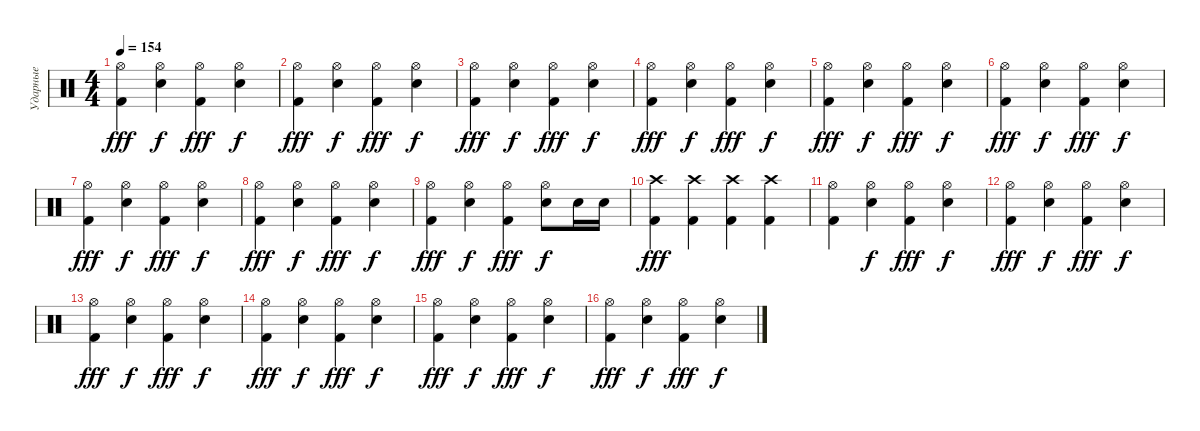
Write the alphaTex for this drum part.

\track ("Ударные" "Ударные") {instrument percussion}
\staff
\articulation defaults
\ts (4 4)
\tempo 154
\clef neutral
\ks c
("Kick (hit) 2" "Hi-Hat (open)").4{dy fff} ("Snare (hit) 2" "Hi-Hat (open)").4{dy f} ("Kick (hit) 2" "Hi-Hat (open)").4{dy fff} ("Snare (hit) 2" "Hi-Hat (open)").4{dy f} |
("Kick (hit) 2" "Hi-Hat (open)").4{dy fff} ("Snare (hit) 2" "Hi-Hat (open)").4{dy f} ("Kick (hit) 2" "Hi-Hat (open)").4{dy fff} ("Snare (hit) 2" "Hi-Hat (open)").4{dy f} |
("Kick (hit) 2" "Hi-Hat (open)").4{dy fff} ("Snare (hit) 2" "Hi-Hat (open)").4{dy f} ("Kick (hit) 2" "Hi-Hat (open)").4{dy fff} ("Snare (hit) 2" "Hi-Hat (open)").4{dy f} |
("Kick (hit) 2" "Hi-Hat (open)").4{dy fff} ("Snare (hit) 2" "Hi-Hat (open)").4{dy f} ("Kick (hit) 2" "Hi-Hat (open)").4{dy fff} ("Snare (hit) 2" "Hi-Hat (open)").4{dy f} |
("Kick (hit) 2" "Hi-Hat (open)").4{dy fff} ("Snare (hit) 2" "Hi-Hat (open)").4{dy f} ("Kick (hit) 2" "Hi-Hat (open)").4{dy fff} ("Snare (hit) 2" "Hi-Hat (open)").4{dy f} |
("Kick (hit) 2" "Hi-Hat (open)").4{dy fff} ("Snare (hit) 2" "Hi-Hat (open)").4{dy f} ("Kick (hit) 2" "Hi-Hat (open)").4{dy fff} ("Snare (hit) 2" "Hi-Hat (open)").4{dy f} |
("Kick (hit) 2" "Hi-Hat (open)").4{dy fff} ("Snare (hit) 2" "Hi-Hat (open)").4{dy f} ("Kick (hit) 2" "Hi-Hat (open)").4{dy fff} ("Snare (hit) 2" "Hi-Hat (open)").4{dy f} |
("Kick (hit) 2" "Hi-Hat (open)").4{dy fff} ("Snare (hit) 2" "Hi-Hat (open)").4{dy f} ("Kick (hit) 2" "Hi-Hat (open)").4{dy fff} ("Snare (hit) 2" "Hi-Hat (open)").4{dy f} |
("Kick (hit) 2" "Hi-Hat (open)").4{dy fff} ("Snare (hit) 2" "Hi-Hat (open)").4{dy f} ("Kick (hit) 2" "Hi-Hat (open)").4{dy fff} ("Snare (hit) 2" "Hi-Hat (open)").8{dy f} "Snare (hit) 2".16 "Snare (hit) 2".16 |
("Kick (hit) 2" "Crash high (hit)").4{dy fff} ("Kick (hit) 2" "Crash high (hit)").4 ("Kick (hit) 2" "Crash high (hit)").4 ("Kick (hit) 2" "Crash high (hit)").4 |
("Kick (hit) 2" "Hi-Hat (open)").4 ("Snare (hit) 2" "Hi-Hat (open)").4{dy f} ("Kick (hit) 2" "Hi-Hat (open)").4{dy fff} ("Snare (hit) 2" "Hi-Hat (open)").4{dy f} |
("Kick (hit) 2" "Hi-Hat (open)").4{dy fff} ("Snare (hit) 2" "Hi-Hat (open)").4{dy f} ("Kick (hit) 2" "Hi-Hat (open)").4{dy fff} ("Snare (hit) 2" "Hi-Hat (open)").4{dy f} |
("Kick (hit) 2" "Hi-Hat (open)").4{dy fff} ("Snare (hit) 2" "Hi-Hat (open)").4{dy f} ("Kick (hit) 2" "Hi-Hat (open)").4{dy fff} ("Snare (hit) 2" "Hi-Hat (open)").4{dy f} |
("Kick (hit) 2" "Hi-Hat (open)").4{dy fff} ("Snare (hit) 2" "Hi-Hat (open)").4{dy f} ("Kick (hit) 2" "Hi-Hat (open)").4{dy fff} ("Snare (hit) 2" "Hi-Hat (open)").4{dy f} |
("Kick (hit) 2" "Hi-Hat (open)").4{dy fff} ("Snare (hit) 2" "Hi-Hat (open)").4{dy f} ("Kick (hit) 2" "Hi-Hat (open)").4{dy fff} ("Snare (hit) 2" "Hi-Hat (open)").4{dy f} |
("Kick (hit) 2" "Hi-Hat (open)").4{dy fff} ("Snare (hit) 2" "Hi-Hat (open)").4{dy f} ("Kick (hit) 2" "Hi-Hat (open)").4{dy fff} ("Snare (hit) 2" "Hi-Hat (open)").4{dy f}
